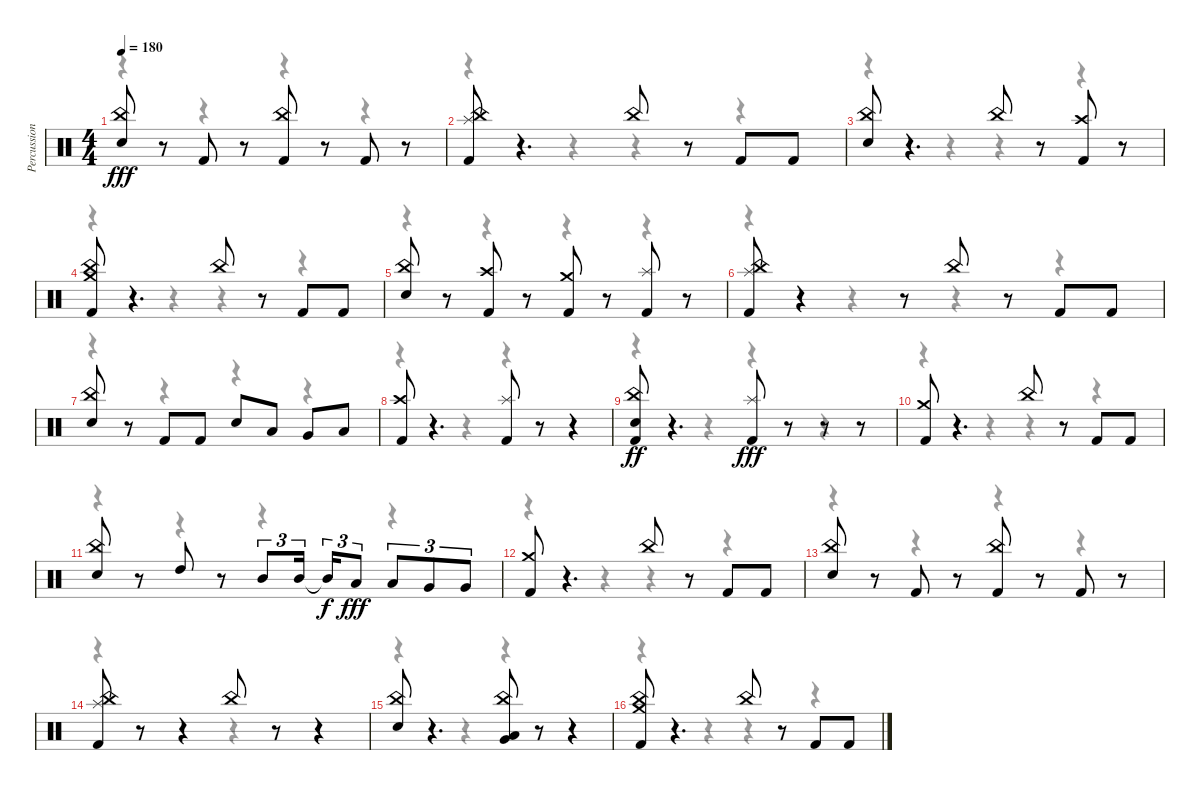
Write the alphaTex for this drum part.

\track ("Percussion" "Percussion") {instrument percussion}
\staff {score}
\articulation defaults
\voice
\ts (4 4)
\tempo 180
\clef neutral
\ks c
("Snare (hit) 2" "China (hit)").8{dy fff} r.8 "Kick (hit) 2".8 r.8 ("Kick (hit) 2" "China (hit)").8 r.8 "Kick (hit) 2".8 r.8 |
("Kick (hit) 2" "China (hit)" "Splash (hit)").8 r.4{d} "China (hit)".8 r.8 "Kick (hit) 2".8 "Kick (hit) 2".8 |
("Snare (hit) 2" "China (hit)").8 r.4{d} "China (hit)".8 r.8 ("Kick (hit) 2" "Crash high (hit)").8 r.8 |
("China (hit)" "Crash medium (hit)" "Kick (hit) 2").8 r.4{d} "China (hit)".8 r.8 "Kick (hit) 2".8 "Kick (hit) 2".8 |
("Snare (hit) 2" "China (hit)").8 r.8 ("Kick (hit) 2" "Crash high (hit)").8 r.8 ("Kick (hit) 2" "Crash medium (hit)").8 r.8 ("Kick (hit) 2" "Splash (hit)").8 r.8 |
("Kick (hit) 2" "China (hit)" "Splash (hit)").8 r.4 r.8 "China (hit)".8 r.8 "Kick (hit) 2".8 "Kick (hit) 2".8 |
("Snare (hit) 2" "China (hit)").8 r.8 "Kick (hit) 2".8 "Kick (hit) 2".8 "Snare (hit) 2".8 "Low Tom (hit)".8 "Very Low Tom (hit)".8 "Low Floor Tom (hit)".8 |
("Kick (hit) 2" "Crash high (hit)").8 r.4{d} ("Kick (hit) 2" "Splash (hit)").8 r.8 r.4 |
("Kick (hit) 2" "Snare (hit) 2" "China (hit)").8{dy ff} r.4{d} ("Kick (hit) 2" "Splash (hit)").8{dy fff} r.8 r.8 r.8 |
("Kick (hit) 2" "Crash medium (hit)").8 r.4{d} "China (hit)".8 r.8 "Kick (hit) 2".8 "Kick (hit) 2".8 |
("Snare (hit) 2" "China (hit)").8 r.8 "High Tom (hit)".8 r.8 "Mid Tom (hit)".8{tu (3 2)} "Mid Tom (hit)".16{tu (3 2)} "Mid Tom (hit)"{t}.16{tu (3 2) dy f} "Low Tom (hit)".8{tu (3 2) dy fff} "Low Tom (hit)".8{tu (3 2)} "Very Low Tom (hit)".8{tu (3 2)} "Very Low Tom (hit)".8{tu (3 2)} |
("Crash medium (hit)" "Kick (hit) 2").8 r.4{d} "China (hit)".8 r.8 "Kick (hit) 2".8 "Kick (hit) 2".8 |
("Snare (hit) 2" "China (hit)").8 r.8 "Kick (hit) 2".8 r.8 ("Kick (hit) 2" "China (hit)").8 r.8 "Kick (hit) 2".8 r.8 |
("Kick (hit) 2" "China (hit)" "Splash (hit)").8 r.8 r.4 "China (hit)".8 r.8 r.4 |
("Snare (hit) 2" "China (hit)").8 r.4{d} ("Low Floor Tom (hit)" "Very Low Tom (hit)" "China (hit)").8 r.8 r.4 |
("China (hit)" "Crash medium (hit)" "Kick (hit) 2").8 r.4{d} "China (hit)".8 r.8 "Kick (hit) 2".8 "Kick (hit) 2".8
\voice
\clef neutral
\ottava regular
\simile none
\ks c
r.4{dy f} r.4 r.4 r.4 |
r.4 r.4 r.4 r.4 |
r.4 r.4 r.4 r.4 |
r.4 r.4 r.4 r.4 |
r.4 r.4 r.4 r.4 |
r.4 r.4 r.4 r.4 |
r.4 r.4 r.4 r.4 |
r.4 r.4 r.4 r.4 |
r.4 r.4 r.4 r.4 |
r.4 r.4 r.4 r.4 |
r.4 r.4 r.4 r.4 |
r.4 r.4 r.4 r.4 |
r.4 r.4 r.4 r.4 |
r.4 r.4 r.4 r.4 |
r.4 r.4 r.4 r.4 |
r.4 r.4 r.4 r.4
